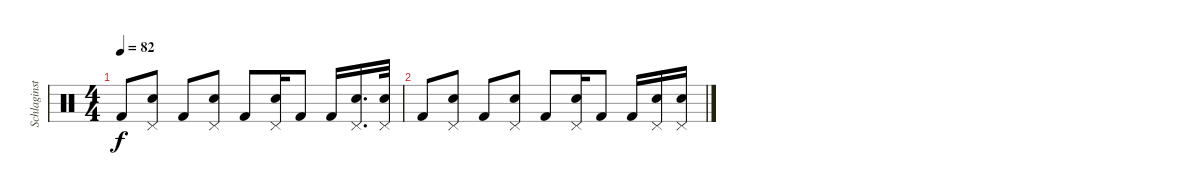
\track ("Schlaginstrumente - Auswahl" "Schlaginst") {instrument percussion}
\staff {score}
\articulation defaults
\ts (4 4)
\tempo 82
\clef neutral
\ks c "Kick (hit) 2".8{dy f}
("Pedal Hi-Hat (hit)" "Electric Snare (hit)").8 "Kick (hit) 2".8 ("Pedal Hi-Hat (hit)" "Electric Snare (hit)").8 "Kick (hit) 2".8 ("Pedal Hi-Hat (hit)" "Electric Snare (hit)").16 "Kick (hit) 2".8 "Kick (hit) 2".16 ("Pedal Hi-Hat (hit)" "Electric Snare (hit)").16{d} ("Pedal Hi-Hat (hit)" "Electric Snare (hit)").32 |
"Kick (hit) 2".8 ("Pedal Hi-Hat (hit)" "Electric Snare (hit)").8 "Kick (hit) 2".8 ("Pedal Hi-Hat (hit)" "Electric Snare (hit)").8 "Kick (hit) 2".8 ("Pedal Hi-Hat (hit)" "Electric Snare (hit)").16 "Kick (hit) 2".8 "Kick (hit) 2".16 ("Pedal Hi-Hat (hit)" "Electric Snare (hit)").16 ("Pedal Hi-Hat (hit)" "Electric Snare (hit)").16
